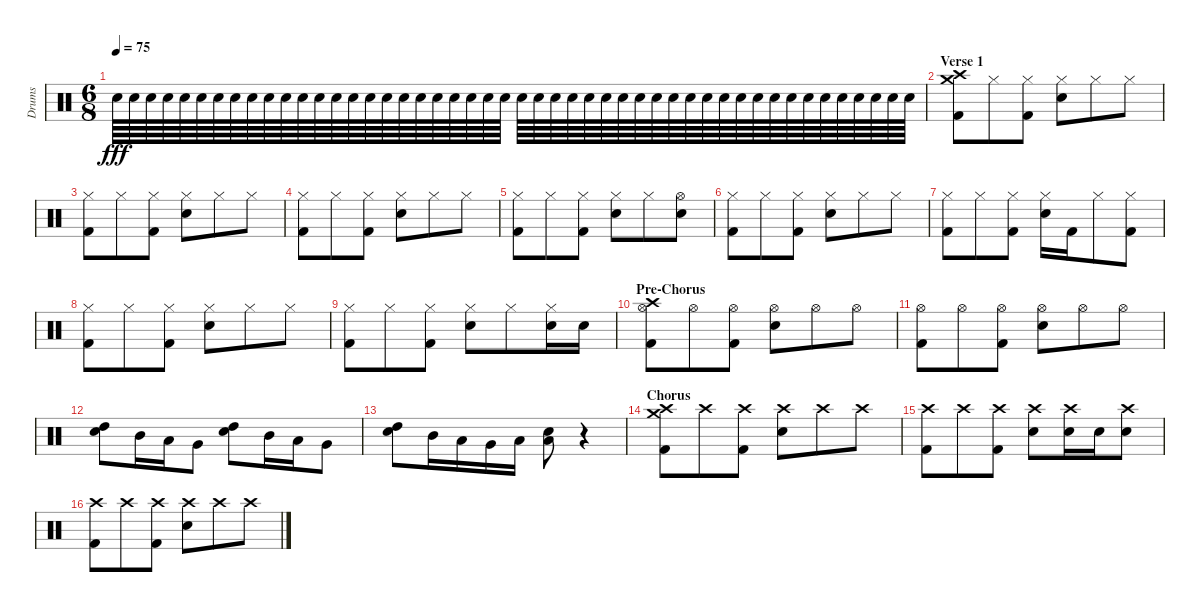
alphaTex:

\track ("Drums" "Drums") {instrument percussion}
\staff {score}
\articulation defaults
\ts (6 8)
\tempo 75
\clef neutral
\ks c "Electric Snare (hit)".64{dy fff volume 0} "Electric Snare (hit)".64{volume 16} "Electric Snare (hit)".64 "Electric Snare (hit)".64 "Electric Snare (hit)".64 "Electric Snare (hit)".64 "Electric Snare (hit)".64 "Electric Snare (hit)".64 "Electric Snare (hit)".64 "Electric Snare (hit)".64 "Electric Snare (hit)".64 "Electric Snare (hit)".64 "Electric Snare (hit)".64 "Electric Snare (hit)".64 "Electric Snare (hit)".64 "Electric Snare (hit)".64 "Electric Snare (hit)".64 "Electric Snare (hit)".64 "Electric Snare (hit)".64 "Electric Snare (hit)".64 "Electric Snare (hit)".64 "Electric Snare (hit)".64 "Electric Snare (hit)".64 "Electric Snare (hit)".64 "Electric Snare (hit)".64 "Electric Snare (hit)".64 "Electric Snare (hit)".64 "Electric Snare (hit)".64 "Electric Snare (hit)".64 "Electric Snare (hit)".64 "Electric Snare (hit)".64 "Electric Snare (hit)".64 "Electric Snare (hit)".64 "Electric Snare (hit)".64 "Electric Snare (hit)".64 "Electric Snare (hit)".64 "Electric Snare (hit)".64 "Electric Snare (hit)".64 "Electric Snare (hit)".64 "Electric Snare (hit)".64 "Electric Snare (hit)".64 "Electric Snare (hit)".64 "Electric Snare (hit)".64 "Electric Snare (hit)".64 "Electric Snare (hit)".64 "Electric Snare (hit)".64 "Electric Snare (hit)".64 "Electric Snare (hit)".64
|
\section ("" "Verse 1")
("Crash high (hit)" "Crash medium (hit)" "Kick (hit) 2").8 "Hi-Hat (closed)".8 ("Hi-Hat (closed)" "Kick (hit) 2").8 ("Hi-Hat (closed)" "Electric Snare (hit)").8 "Hi-Hat (closed)".8 "Hi-Hat (closed)".8 |
("Hi-Hat (closed)" "Kick (hit) 2").8 "Hi-Hat (closed)".8 ("Hi-Hat (closed)" "Kick (hit) 2").8 ("Hi-Hat (closed)" "Electric Snare (hit)").8 "Hi-Hat (closed)".8 "Hi-Hat (closed)".8 |
("Hi-Hat (closed)" "Kick (hit) 2").8 "Hi-Hat (closed)".8 ("Hi-Hat (closed)" "Kick (hit) 2").8 ("Hi-Hat (closed)" "Electric Snare (hit)").8 "Hi-Hat (closed)".8 "Hi-Hat (closed)".8 |
("Hi-Hat (closed)" "Kick (hit) 2").8 "Hi-Hat (closed)".8 ("Hi-Hat (closed)" "Kick (hit) 2").8 ("Hi-Hat (closed)" "Electric Snare (hit)").8 "Hi-Hat (closed)".8 ("Hi-Hat (open)" "Electric Snare (hit)").8 |
("Hi-Hat (closed)" "Kick (hit) 2").8 "Hi-Hat (closed)".8 ("Hi-Hat (closed)" "Kick (hit) 2").8 ("Hi-Hat (closed)" "Electric Snare (hit)").8 "Hi-Hat (closed)".8 "Hi-Hat (closed)".8 |
("Hi-Hat (closed)" "Kick (hit) 2").8 "Hi-Hat (closed)".8 ("Hi-Hat (closed)" "Kick (hit) 2").8 ("Hi-Hat (closed)" "Electric Snare (hit)").16 "Kick (hit) 2".16 "Hi-Hat (closed)".8 ("Hi-Hat (closed)" "Kick (hit) 2").8 |
("Hi-Hat (closed)" "Kick (hit) 2").8 "Hi-Hat (closed)".8 ("Hi-Hat (closed)" "Kick (hit) 2").8 ("Hi-Hat (closed)" "Electric Snare (hit)").8 "Hi-Hat (closed)".8 "Hi-Hat (closed)".8 |
("Hi-Hat (closed)" "Kick (hit) 2").8 "Hi-Hat (closed)".8 ("Hi-Hat (closed)" "Kick (hit) 2").8 ("Hi-Hat (closed)" "Electric Snare (hit)").8 "Hi-Hat (closed)".8 ("Hi-Hat (closed)" "Electric Snare (hit)").16 "Electric Snare (hit)".16 |
\section ("" "Pre-Chorus")
("Crash high (hit)" "Hi-Hat (open)" "Kick (hit) 2").8 "Hi-Hat (open)".8 ("Hi-Hat (open)" "Kick (hit) 2").8 ("Hi-Hat (open)" "Electric Snare (hit)").8 "Hi-Hat (open)".8 "Hi-Hat (open)".8 |
("Hi-Hat (open)" "Kick (hit) 2").8 "Hi-Hat (open)".8 ("Hi-Hat (open)" "Kick (hit) 2").8 ("Hi-Hat (open)" "Electric Snare (hit)").8 "Hi-Hat (open)".8 "Hi-Hat (open)".8 |
("High Tom (hit)" "Electric Snare (hit)").8 "Mid Tom (hit)".16 "Low Tom (hit)".16 "Very Low Tom (hit)".8 ("High Tom (hit)" "Electric Snare (hit)").8 "Mid Tom (hit)".16 "Low Tom (hit)".16 "Very Low Tom (hit)".8 |
("High Tom (hit)" "Electric Snare (hit)").8 "Mid Tom (hit)".16 "Low Tom (hit)".16 "Very Low Tom (hit)".16 "Low Floor Tom (hit)".16 ("Low Tom (hit)" "Electric Snare (hit)").8 r.4 |
\section ("" "Chorus")
("Crash high (hit)" "Crash medium (hit)" "Kick (hit) 2").8 "Crash high (hit)".8 ("Crash high (hit)" "Kick (hit) 2").8 ("Crash high (hit)" "Electric Snare (hit)").8 "Crash high (hit)".8 "Crash high (hit)".8 |
("Crash high (hit)" "Kick (hit) 2").8 "Crash high (hit)".8 ("Crash high (hit)" "Kick (hit) 2").8 ("Crash high (hit)" "Electric Snare (hit)").8 ("Crash high (hit)" "Electric Snare (hit)").16 "Electric Snare (hit)".16 ("Crash high (hit)" "Electric Snare (hit)").8 |
("Crash high (hit)" "Kick (hit) 2").8 "Crash high (hit)".8 ("Crash high (hit)" "Kick (hit) 2").8 ("Crash high (hit)" "Electric Snare (hit)").8 "Crash high (hit)".8 "Crash high (hit)".8
